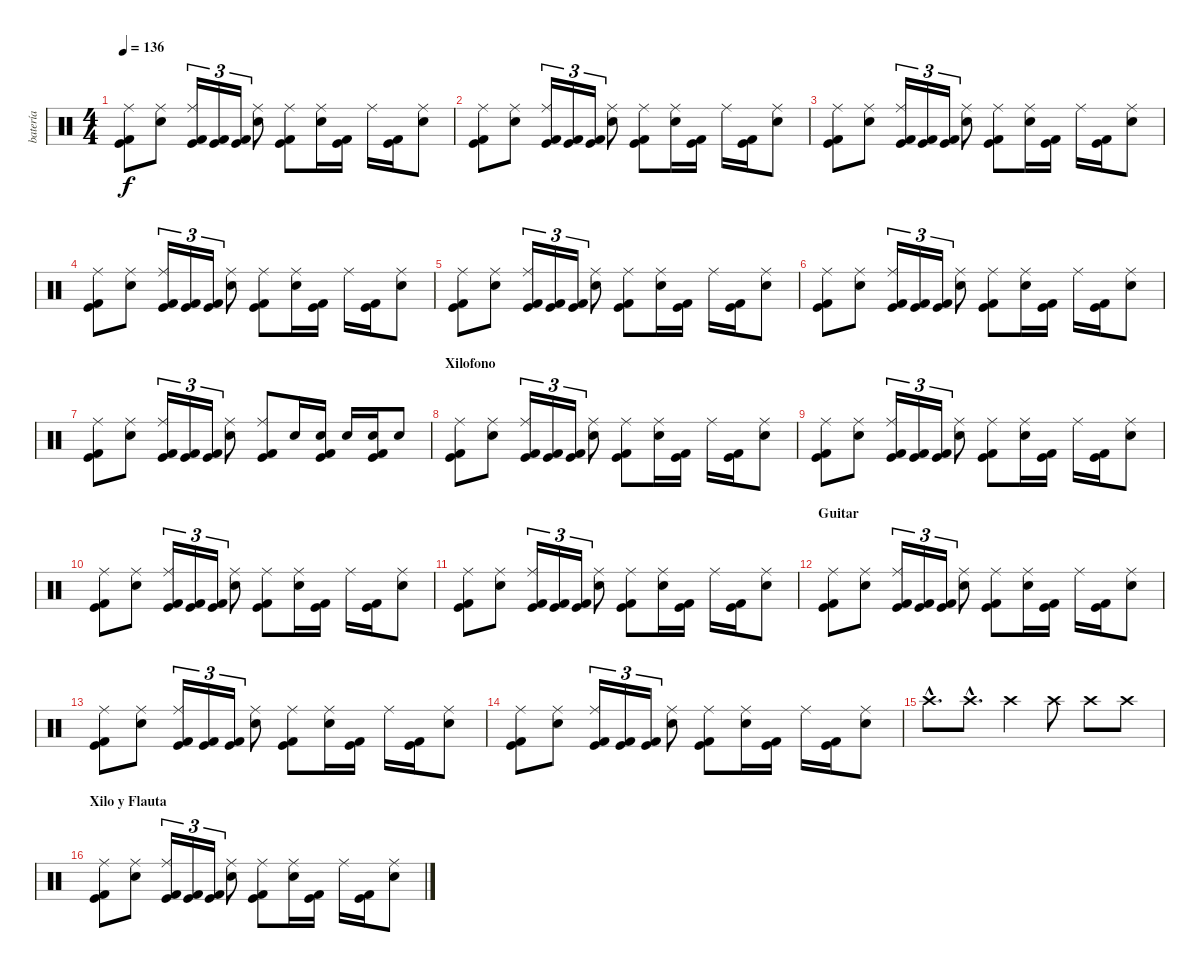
\track ("batería" "batería") {instrument percussion}
\staff {score}
\articulation defaults
\ts (4 4)
\tempo 136
\clef neutral
\ks c
("Kick (hit) 2" "Ride (middle)" "Kick (hit)").8{dy f} ("Snare (hit) 2" "Ride (middle)").8 ("Kick (hit) 2" "Ride (middle)" "Kick (hit)").16{tu (3 2)} ("Kick (hit) 2" "Kick (hit)").16{tu (3 2)} ("Kick (hit) 2" "Kick (hit)").16{tu (3 2)} ("Snare (hit) 2" "Ride (middle)").8 ("Kick (hit) 2" "Ride (middle)" "Kick (hit)").8 ("Snare (hit) 2" "Ride (middle)").16 ("Kick (hit) 2" "Kick (hit)").16 "Ride (middle)".16 ("Kick (hit) 2" "Kick (hit)").16 ("Snare (hit) 2" "Ride (middle)").8 |
("Kick (hit) 2" "Ride (middle)" "Kick (hit)").8 ("Snare (hit) 2" "Ride (middle)").8 ("Kick (hit) 2" "Ride (middle)" "Kick (hit)").16{tu (3 2)} ("Kick (hit) 2" "Kick (hit)").16{tu (3 2)} ("Kick (hit) 2" "Kick (hit)").16{tu (3 2)} ("Snare (hit) 2" "Ride (middle)").8 ("Kick (hit) 2" "Ride (middle)" "Kick (hit)").8 ("Snare (hit) 2" "Ride (middle)").16 ("Kick (hit) 2" "Kick (hit)").16 "Ride (middle)".16 ("Kick (hit) 2" "Kick (hit)").16 ("Snare (hit) 2" "Ride (middle)").8 |
("Kick (hit) 2" "Ride (middle)" "Kick (hit)").8 ("Snare (hit) 2" "Ride (middle)").8 ("Kick (hit) 2" "Ride (middle)" "Kick (hit)").16{tu (3 2)} ("Kick (hit) 2" "Kick (hit)").16{tu (3 2)} ("Kick (hit) 2" "Kick (hit)").16{tu (3 2)} ("Snare (hit) 2" "Ride (middle)").8 ("Kick (hit) 2" "Ride (middle)" "Kick (hit)").8 ("Snare (hit) 2" "Ride (middle)").16 ("Kick (hit) 2" "Kick (hit)").16 "Ride (middle)".16 ("Kick (hit) 2" "Kick (hit)").16 ("Snare (hit) 2" "Ride (middle)").8 |
\section ("" "")
("Kick (hit) 2" "Ride (middle)" "Kick (hit)").8 ("Snare (hit) 2" "Ride (middle)").8 ("Kick (hit) 2" "Ride (middle)" "Kick (hit)").16{tu (3 2)} ("Kick (hit) 2" "Kick (hit)").16{tu (3 2)} ("Kick (hit) 2" "Kick (hit)").16{tu (3 2)} ("Snare (hit) 2" "Ride (middle)").8 ("Kick (hit) 2" "Ride (middle)" "Kick (hit)").8 ("Snare (hit) 2" "Ride (middle)").16 ("Kick (hit) 2" "Kick (hit)").16 "Ride (middle)".16 ("Kick (hit) 2" "Kick (hit)").16 ("Snare (hit) 2" "Ride (middle)").8 |
("Kick (hit) 2" "Ride (middle)" "Kick (hit)").8 ("Snare (hit) 2" "Ride (middle)").8 ("Kick (hit) 2" "Ride (middle)" "Kick (hit)").16{tu (3 2)} ("Kick (hit) 2" "Kick (hit)").16{tu (3 2)} ("Kick (hit) 2" "Kick (hit)").16{tu (3 2)} ("Snare (hit) 2" "Ride (middle)").8 ("Kick (hit) 2" "Ride (middle)" "Kick (hit)").8 ("Snare (hit) 2" "Ride (middle)").16 ("Kick (hit) 2" "Kick (hit)").16 "Ride (middle)".16 ("Kick (hit) 2" "Kick (hit)").16 ("Snare (hit) 2" "Ride (middle)").8 |
("Kick (hit) 2" "Ride (middle)" "Kick (hit)").8 ("Snare (hit) 2" "Ride (middle)").8 ("Kick (hit) 2" "Ride (middle)" "Kick (hit)").16{tu (3 2)} ("Kick (hit) 2" "Kick (hit)").16{tu (3 2)} ("Kick (hit) 2" "Kick (hit)").16{tu (3 2)} ("Snare (hit) 2" "Ride (middle)").8 ("Kick (hit) 2" "Ride (middle)" "Kick (hit)").8 ("Snare (hit) 2" "Ride (middle)").16 ("Kick (hit) 2" "Kick (hit)").16 "Ride (middle)".16 ("Kick (hit) 2" "Kick (hit)").16 ("Snare (hit) 2" "Ride (middle)").8 |
("Kick (hit) 2" "Ride (middle)" "Kick (hit)").8 ("Snare (hit) 2" "Ride (middle)").8 ("Kick (hit) 2" "Ride (middle)" "Kick (hit)").16{tu (3 2)} ("Kick (hit) 2" "Kick (hit)").16{tu (3 2)} ("Kick (hit) 2" "Kick (hit)").16{tu (3 2)} ("Snare (hit) 2" "Ride (middle)").8 ("Kick (hit) 2" "Ride (middle)" "Kick (hit)").8 "Snare (hit) 2".16 ("Kick (hit) 2" "Snare (hit) 2" "Kick (hit)").16 "Snare (hit) 2".16 ("Kick (hit) 2" "Snare (hit) 2" "Kick (hit)").16 "Snare (hit) 2".8 |
\section ("" "Xilofono")
("Kick (hit) 2" "Ride (middle)" "Kick (hit)").8 ("Snare (hit) 2" "Ride (middle)").8 ("Kick (hit) 2" "Ride (middle)" "Kick (hit)").16{tu (3 2)} ("Kick (hit) 2" "Kick (hit)").16{tu (3 2)} ("Kick (hit) 2" "Kick (hit)").16{tu (3 2)} ("Snare (hit) 2" "Ride (middle)").8 ("Kick (hit) 2" "Ride (middle)" "Kick (hit)").8 ("Snare (hit) 2" "Ride (middle)").16 ("Kick (hit) 2" "Kick (hit)").16 "Ride (middle)".16 ("Kick (hit) 2" "Kick (hit)").16 ("Snare (hit) 2" "Ride (middle)").8 |
("Kick (hit) 2" "Ride (middle)" "Kick (hit)").8 ("Snare (hit) 2" "Ride (middle)").8 ("Kick (hit) 2" "Ride (middle)" "Kick (hit)").16{tu (3 2)} ("Kick (hit) 2" "Kick (hit)").16{tu (3 2)} ("Kick (hit) 2" "Kick (hit)").16{tu (3 2)} ("Snare (hit) 2" "Ride (middle)").8 ("Kick (hit) 2" "Ride (middle)" "Kick (hit)").8 ("Snare (hit) 2" "Ride (middle)").16 ("Kick (hit) 2" "Kick (hit)").16 "Ride (middle)".16 ("Kick (hit) 2" "Kick (hit)").16 ("Snare (hit) 2" "Ride (middle)").8 |
("Kick (hit) 2" "Ride (middle)" "Kick (hit)").8 ("Snare (hit) 2" "Ride (middle)").8 ("Kick (hit) 2" "Ride (middle)" "Kick (hit)").16{tu (3 2)} ("Kick (hit) 2" "Kick (hit)").16{tu (3 2)} ("Kick (hit) 2" "Kick (hit)").16{tu (3 2)} ("Snare (hit) 2" "Ride (middle)").8 ("Kick (hit) 2" "Ride (middle)" "Kick (hit)").8 ("Snare (hit) 2" "Ride (middle)").16 ("Kick (hit) 2" "Kick (hit)").16 "Ride (middle)".16 ("Kick (hit) 2" "Kick (hit)").16 ("Snare (hit) 2" "Ride (middle)").8 |
("Kick (hit) 2" "Ride (middle)" "Kick (hit)").8 ("Snare (hit) 2" "Ride (middle)").8 ("Kick (hit) 2" "Ride (middle)" "Kick (hit)").16{tu (3 2)} ("Kick (hit) 2" "Kick (hit)").16{tu (3 2)} ("Kick (hit) 2" "Kick (hit)").16{tu (3 2)} ("Snare (hit) 2" "Ride (middle)").8 ("Kick (hit) 2" "Ride (middle)" "Kick (hit)").8 ("Snare (hit) 2" "Ride (middle)").16 ("Kick (hit) 2" "Kick (hit)").16 "Ride (middle)".16 ("Kick (hit) 2" "Kick (hit)").16 ("Snare (hit) 2" "Ride (middle)").8 |
\section ("" "Guitar")
("Kick (hit) 2" "Ride (middle)" "Kick (hit)").8 ("Snare (hit) 2" "Ride (middle)").8 ("Kick (hit) 2" "Ride (middle)" "Kick (hit)").16{tu (3 2)} ("Kick (hit) 2" "Kick (hit)").16{tu (3 2)} ("Kick (hit) 2" "Kick (hit)").16{tu (3 2)} ("Snare (hit) 2" "Ride (middle)").8 ("Kick (hit) 2" "Ride (middle)" "Kick (hit)").8 ("Snare (hit) 2" "Ride (middle)").16 ("Kick (hit) 2" "Kick (hit)").16 "Ride (middle)".16 ("Kick (hit) 2" "Kick (hit)").16 ("Snare (hit) 2" "Ride (middle)").8 |
("Kick (hit) 2" "Ride (middle)" "Kick (hit)").8 ("Snare (hit) 2" "Ride (middle)").8 ("Kick (hit) 2" "Ride (middle)" "Kick (hit)").16{tu (3 2)} ("Kick (hit) 2" "Kick (hit)").16{tu (3 2)} ("Kick (hit) 2" "Kick (hit)").16{tu (3 2)} ("Snare (hit) 2" "Ride (middle)").8 ("Kick (hit) 2" "Ride (middle)" "Kick (hit)").8 ("Snare (hit) 2" "Ride (middle)").16 ("Kick (hit) 2" "Kick (hit)").16 "Ride (middle)".16 ("Kick (hit) 2" "Kick (hit)").16 ("Snare (hit) 2" "Ride (middle)").8 |
("Kick (hit) 2" "Ride (middle)" "Kick (hit)").8 ("Snare (hit) 2" "Ride (middle)").8 ("Kick (hit) 2" "Ride (middle)" "Kick (hit)").16{tu (3 2)} ("Kick (hit) 2" "Kick (hit)").16{tu (3 2)} ("Kick (hit) 2" "Kick (hit)").16{tu (3 2)} ("Snare (hit) 2" "Ride (middle)").8 ("Kick (hit) 2" "Ride (middle)" "Kick (hit)").8 ("Snare (hit) 2" "Ride (middle)").16 ("Kick (hit) 2" "Kick (hit)").16 "Ride (middle)".16 ("Kick (hit) 2" "Kick (hit)").16 ("Snare (hit) 2" "Ride (middle)").8 |
"Crash high (hit)"{hac}.8{d} "Crash high (hit)"{hac}.8{d} "Crash high (hit)".4 "Crash high (hit)".8 "Crash high (hit)".8 "Crash high (hit)".8 |
\section ("" "Xilo y Flauta")
("Kick (hit) 2" "Ride (middle)" "Kick (hit)").8 ("Snare (hit) 2" "Ride (middle)").8 ("Kick (hit) 2" "Ride (middle)" "Kick (hit)").16{tu (3 2)} ("Kick (hit) 2" "Kick (hit)").16{tu (3 2)} ("Kick (hit) 2" "Kick (hit)").16{tu (3 2)} ("Snare (hit) 2" "Ride (middle)").8 ("Kick (hit) 2" "Ride (middle)" "Kick (hit)").8 ("Snare (hit) 2" "Ride (middle)").16 ("Kick (hit) 2" "Kick (hit)").16 "Ride (middle)".16 ("Kick (hit) 2" "Kick (hit)").16 ("Snare (hit) 2" "Ride (middle)").8
